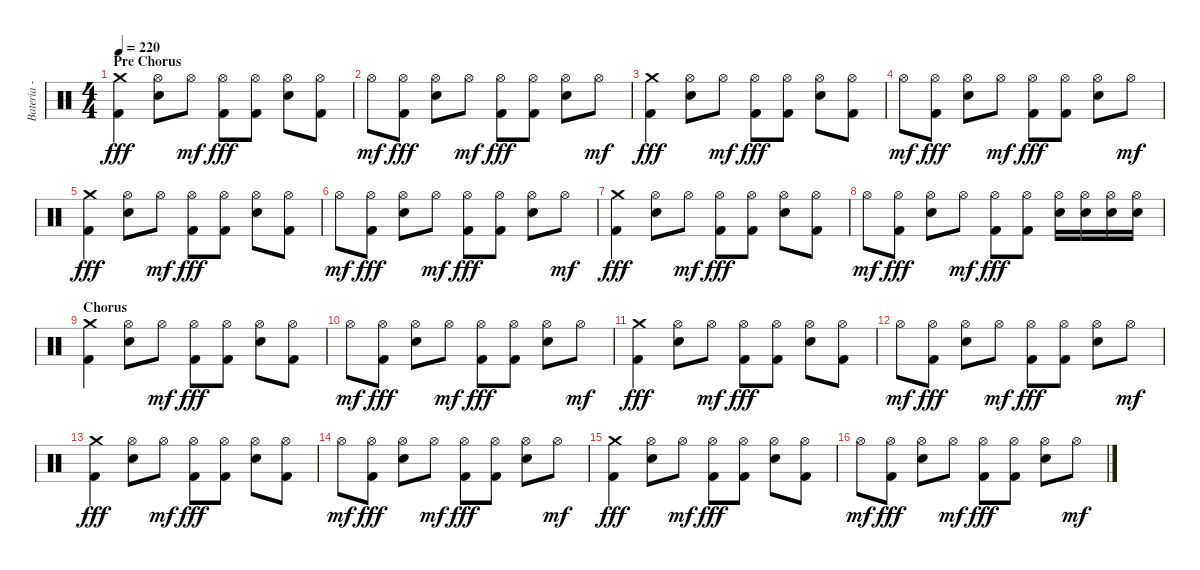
\track ("Bateria - Larzon" "Bateria - ") {instrument percussion}
\staff {score}
\articulation defaults
\ts (4 4)
\section ("" "Pre Chorus")
\tempo 220
\clef neutral
\ks c
("Crash medium (hit)" "Kick (hit) 2").4{dy fff} ("Hi-Hat (open)" "Electric Snare (hit)").8 "Hi-Hat (open)".8{dy mf} ("Hi-Hat (open)" "Kick (hit) 2").8{dy fff} ("Hi-Hat (open)" "Kick (hit) 2").8 ("Hi-Hat (open)" "Electric Snare (hit)").8 ("Hi-Hat (open)" "Kick (hit) 2").8 |
"Hi-Hat (open)".8{dy mf} ("Hi-Hat (open)" "Kick (hit) 2").8{dy fff} ("Hi-Hat (open)" "Electric Snare (hit)").8 "Hi-Hat (open)".8{dy mf} ("Hi-Hat (open)" "Kick (hit) 2").8{dy fff} ("Hi-Hat (open)" "Kick (hit) 2").8 ("Hi-Hat (open)" "Electric Snare (hit)").8 "Hi-Hat (open)".8{dy mf} |
("Crash medium (hit)" "Kick (hit) 2").4{dy fff} ("Hi-Hat (open)" "Electric Snare (hit)").8 "Hi-Hat (open)".8{dy mf} ("Hi-Hat (open)" "Kick (hit) 2").8{dy fff} ("Hi-Hat (open)" "Kick (hit) 2").8 ("Hi-Hat (open)" "Electric Snare (hit)").8 ("Hi-Hat (open)" "Kick (hit) 2").8 |
"Hi-Hat (open)".8{dy mf} ("Hi-Hat (open)" "Kick (hit) 2").8{dy fff} ("Hi-Hat (open)" "Electric Snare (hit)").8 "Hi-Hat (open)".8{dy mf} ("Hi-Hat (open)" "Kick (hit) 2").8{dy fff} ("Hi-Hat (open)" "Kick (hit) 2").8 ("Hi-Hat (open)" "Electric Snare (hit)").8 "Hi-Hat (open)".8{dy mf} |
("Crash medium (hit)" "Kick (hit) 2").4{dy fff} ("Hi-Hat (open)" "Electric Snare (hit)").8 "Hi-Hat (open)".8{dy mf} ("Hi-Hat (open)" "Kick (hit) 2").8{dy fff} ("Hi-Hat (open)" "Kick (hit) 2").8 ("Hi-Hat (open)" "Electric Snare (hit)").8 ("Hi-Hat (open)" "Kick (hit) 2").8 |
"Hi-Hat (open)".8{dy mf} ("Hi-Hat (open)" "Kick (hit) 2").8{dy fff} ("Hi-Hat (open)" "Electric Snare (hit)").8 "Hi-Hat (open)".8{dy mf} ("Hi-Hat (open)" "Kick (hit) 2").8{dy fff} ("Hi-Hat (open)" "Kick (hit) 2").8 ("Hi-Hat (open)" "Electric Snare (hit)").8 "Hi-Hat (open)".8{dy mf} |
("Crash medium (hit)" "Kick (hit) 2").4{dy fff} ("Hi-Hat (open)" "Electric Snare (hit)").8 "Hi-Hat (open)".8{dy mf} ("Hi-Hat (open)" "Kick (hit) 2").8{dy fff} ("Hi-Hat (open)" "Kick (hit) 2").8 ("Hi-Hat (open)" "Electric Snare (hit)").8 ("Hi-Hat (open)" "Kick (hit) 2").8 |
"Hi-Hat (open)".8{dy mf} ("Hi-Hat (open)" "Kick (hit) 2").8{dy fff} ("Hi-Hat (open)" "Electric Snare (hit)").8 "Hi-Hat (open)".8{dy mf} ("Hi-Hat (open)" "Kick (hit) 2").8{dy fff} ("Hi-Hat (open)" "Kick (hit) 2").8 ("Hi-Hat (open)" "Electric Snare (hit)").16 ("Hi-Hat (open)" "Electric Snare (hit)").16 ("Hi-Hat (open)" "Electric Snare (hit)").16 ("Hi-Hat (open)" "Electric Snare (hit)").16 |
\section ("" "Chorus")
("Crash medium (hit)" "Kick (hit) 2").4 ("Hi-Hat (open)" "Electric Snare (hit)").8 "Hi-Hat (open)".8{dy mf} ("Hi-Hat (open)" "Kick (hit) 2").8{dy fff} ("Hi-Hat (open)" "Kick (hit) 2").8 ("Hi-Hat (open)" "Electric Snare (hit)").8 ("Hi-Hat (open)" "Kick (hit) 2").8 |
"Hi-Hat (open)".8{dy mf} ("Hi-Hat (open)" "Kick (hit) 2").8{dy fff} ("Hi-Hat (open)" "Electric Snare (hit)").8 "Hi-Hat (open)".8{dy mf} ("Hi-Hat (open)" "Kick (hit) 2").8{dy fff} ("Hi-Hat (open)" "Kick (hit) 2").8 ("Hi-Hat (open)" "Electric Snare (hit)").8 "Hi-Hat (open)".8{dy mf} |
("Crash medium (hit)" "Kick (hit) 2").4{dy fff} ("Hi-Hat (open)" "Electric Snare (hit)").8 "Hi-Hat (open)".8{dy mf} ("Hi-Hat (open)" "Kick (hit) 2").8{dy fff} ("Hi-Hat (open)" "Kick (hit) 2").8 ("Hi-Hat (open)" "Electric Snare (hit)").8 ("Hi-Hat (open)" "Kick (hit) 2").8 |
"Hi-Hat (open)".8{dy mf} ("Hi-Hat (open)" "Kick (hit) 2").8{dy fff} ("Hi-Hat (open)" "Electric Snare (hit)").8 "Hi-Hat (open)".8{dy mf} ("Hi-Hat (open)" "Kick (hit) 2").8{dy fff} ("Hi-Hat (open)" "Kick (hit) 2").8 ("Hi-Hat (open)" "Electric Snare (hit)").8 "Hi-Hat (open)".8{dy mf} |
("Crash medium (hit)" "Kick (hit) 2").4{dy fff} ("Hi-Hat (open)" "Electric Snare (hit)").8 "Hi-Hat (open)".8{dy mf} ("Hi-Hat (open)" "Kick (hit) 2").8{dy fff} ("Hi-Hat (open)" "Kick (hit) 2").8 ("Hi-Hat (open)" "Electric Snare (hit)").8 ("Hi-Hat (open)" "Kick (hit) 2").8 |
"Hi-Hat (open)".8{dy mf} ("Hi-Hat (open)" "Kick (hit) 2").8{dy fff} ("Hi-Hat (open)" "Electric Snare (hit)").8 "Hi-Hat (open)".8{dy mf} ("Hi-Hat (open)" "Kick (hit) 2").8{dy fff} ("Hi-Hat (open)" "Kick (hit) 2").8 ("Hi-Hat (open)" "Electric Snare (hit)").8 "Hi-Hat (open)".8{dy mf} |
("Crash medium (hit)" "Kick (hit) 2").4{dy fff} ("Hi-Hat (open)" "Electric Snare (hit)").8 "Hi-Hat (open)".8{dy mf} ("Hi-Hat (open)" "Kick (hit) 2").8{dy fff} ("Hi-Hat (open)" "Kick (hit) 2").8 ("Hi-Hat (open)" "Electric Snare (hit)").8 ("Hi-Hat (open)" "Kick (hit) 2").8 |
"Hi-Hat (open)".8{dy mf} ("Hi-Hat (open)" "Kick (hit) 2").8{dy fff} ("Hi-Hat (open)" "Electric Snare (hit)").8 "Hi-Hat (open)".8{dy mf} ("Hi-Hat (open)" "Kick (hit) 2").8{dy fff} ("Hi-Hat (open)" "Kick (hit) 2").8 ("Hi-Hat (open)" "Electric Snare (hit)").8 "Hi-Hat (open)".8{dy mf}
